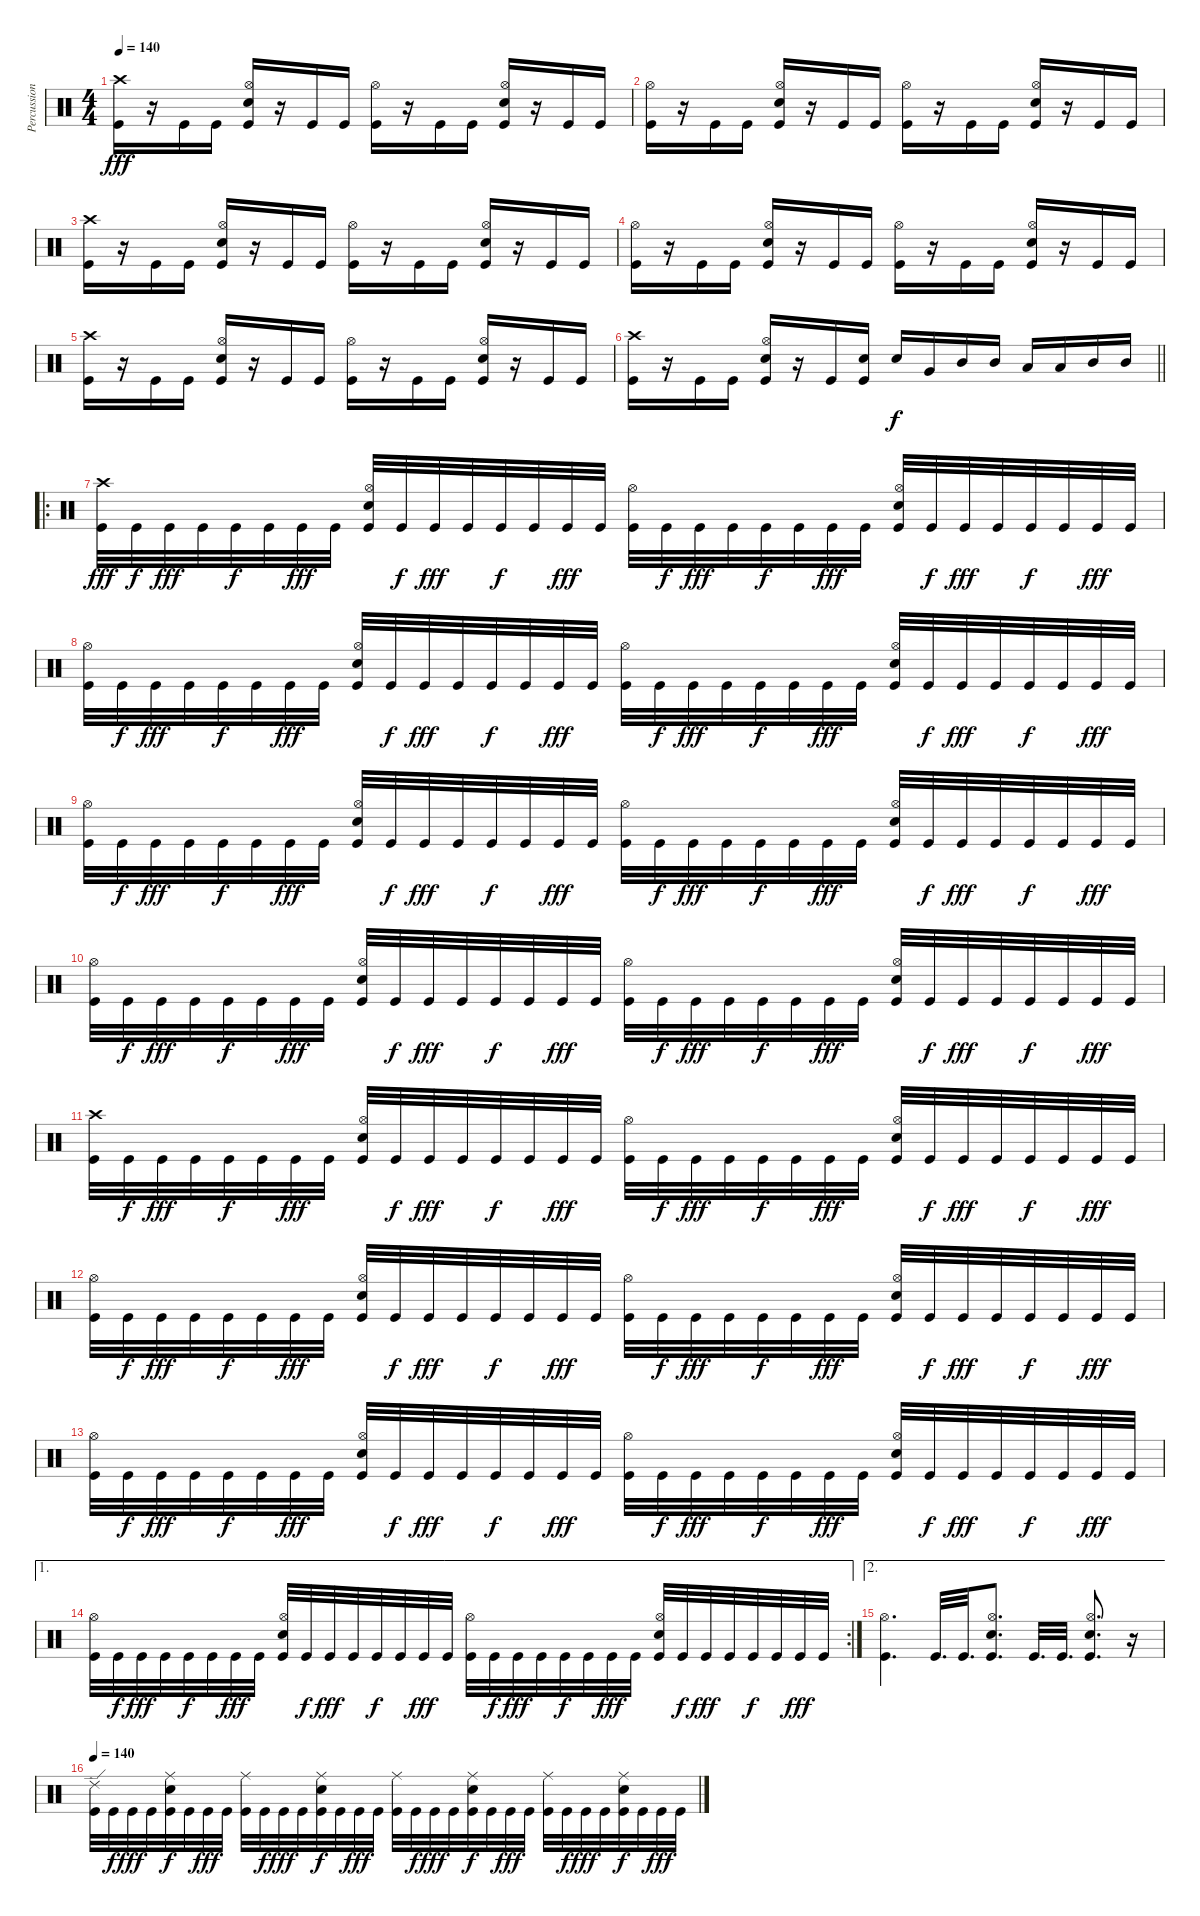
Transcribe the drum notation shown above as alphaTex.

\track ("Percussion" "Percussion") {instrument percussion}
\staff {score}
\articulation defaults
\ts (4 4)
\tempo 140
\clef neutral
\ks c
("Crash high (hit)" "Kick (hit)").16{dy fff} r.16 "Kick (hit)".16 "Kick (hit)".16 ("Hi-Hat (open)" "Electric Snare (hit)" "Kick (hit)").16 r.16 "Kick (hit)".16 "Kick (hit)".16 ("Hi-Hat (open)" "Kick (hit)").16 r.16 "Kick (hit)".16 "Kick (hit)".16 ("Hi-Hat (open)" "Electric Snare (hit)" "Kick (hit)").16 r.16 "Kick (hit)".16 "Kick (hit)".16 |
("Hi-Hat (open)" "Kick (hit)").16 r.16 "Kick (hit)".16 "Kick (hit)".16 ("Hi-Hat (open)" "Electric Snare (hit)" "Kick (hit)").16 r.16 "Kick (hit)".16 "Kick (hit)".16 ("Hi-Hat (open)" "Kick (hit)").16 r.16 "Kick (hit)".16 "Kick (hit)".16 ("Hi-Hat (open)" "Electric Snare (hit)" "Kick (hit)").16 r.16 "Kick (hit)".16 "Kick (hit)".16 |
("Crash high (hit)" "Kick (hit)").16 r.16 "Kick (hit)".16 "Kick (hit)".16 ("Hi-Hat (open)" "Electric Snare (hit)" "Kick (hit)").16 r.16 "Kick (hit)".16 "Kick (hit)".16 ("Hi-Hat (open)" "Kick (hit)").16 r.16 "Kick (hit)".16 "Kick (hit)".16 ("Hi-Hat (open)" "Electric Snare (hit)" "Kick (hit)").16 r.16 "Kick (hit)".16 "Kick (hit)".16 |
("Hi-Hat (open)" "Kick (hit)").16 r.16 "Kick (hit)".16 "Kick (hit)".16 ("Hi-Hat (open)" "Electric Snare (hit)" "Kick (hit)").16 r.16 "Kick (hit)".16 "Kick (hit)".16 ("Hi-Hat (open)" "Kick (hit)").16 r.16 "Kick (hit)".16 "Kick (hit)".16 ("Hi-Hat (open)" "Electric Snare (hit)" "Kick (hit)").16 r.16 "Kick (hit)".16 "Kick (hit)".16 |
("Crash high (hit)" "Kick (hit)").16 r.16 "Kick (hit)".16 "Kick (hit)".16 ("Hi-Hat (open)" "Electric Snare (hit)" "Kick (hit)").16 r.16 "Kick (hit)".16 "Kick (hit)".16 ("Hi-Hat (open)" "Kick (hit)").16 r.16 "Kick (hit)".16 "Kick (hit)".16 ("Hi-Hat (open)" "Electric Snare (hit)" "Kick (hit)").16 r.16 "Kick (hit)".16 "Kick (hit)".16 |
\barLineRight lightlight
("Crash high (hit)" "Kick (hit)").16 r.16 "Kick (hit)".16 "Kick (hit)".16 ("Hi-Hat (open)" "Electric Snare (hit)" "Kick (hit)").16 r.16 "Kick (hit)".16 ("Electric Snare (hit)" "Kick (hit)").16 "Electric Snare (hit)".16{dy f} "Very Low Tom (hit)".16 "Mid Tom (hit)".16 "Mid Tom (hit)".16 "Low Tom (hit)".16 "Low Tom (hit)".16 "Mid Tom (hit)".16 "Mid Tom (hit)".16 |
\ro
("Crash high (hit)" "Kick (hit)").32{dy fff} "Kick (hit)".32{dy f} "Kick (hit)".32{dy fff} "Kick (hit)".32 "Kick (hit)".32{dy f} "Kick (hit)".32 "Kick (hit)".32{dy fff} "Kick (hit)".32 ("Hi-Hat (open)" "Electric Snare (hit)" "Kick (hit)").32 "Kick (hit)".32{dy f} "Kick (hit)".32{dy fff} "Kick (hit)".32 "Kick (hit)".32{dy f} "Kick (hit)".32 "Kick (hit)".32{dy fff} "Kick (hit)".32 ("Hi-Hat (open)" "Kick (hit)").32 "Kick (hit)".32{dy f} "Kick (hit)".32{dy fff} "Kick (hit)".32 "Kick (hit)".32{dy f} "Kick (hit)".32 "Kick (hit)".32{dy fff} "Kick (hit)".32 ("Hi-Hat (open)" "Electric Snare (hit)" "Kick (hit)").32 "Kick (hit)".32{dy f} "Kick (hit)".32{dy fff} "Kick (hit)".32 "Kick (hit)".32{dy f} "Kick (hit)".32 "Kick (hit)".32{dy fff} "Kick (hit)".32 |
("Hi-Hat (open)" "Kick (hit)").32 "Kick (hit)".32{dy f} "Kick (hit)".32{dy fff} "Kick (hit)".32 "Kick (hit)".32{dy f} "Kick (hit)".32 "Kick (hit)".32{dy fff} "Kick (hit)".32 ("Hi-Hat (open)" "Electric Snare (hit)" "Kick (hit)").32 "Kick (hit)".32{dy f} "Kick (hit)".32{dy fff} "Kick (hit)".32 "Kick (hit)".32{dy f} "Kick (hit)".32 "Kick (hit)".32{dy fff} "Kick (hit)".32 ("Hi-Hat (open)" "Kick (hit)").32 "Kick (hit)".32{dy f} "Kick (hit)".32{dy fff} "Kick (hit)".32 "Kick (hit)".32{dy f} "Kick (hit)".32 "Kick (hit)".32{dy fff} "Kick (hit)".32 ("Hi-Hat (open)" "Electric Snare (hit)" "Kick (hit)").32 "Kick (hit)".32{dy f} "Kick (hit)".32{dy fff} "Kick (hit)".32 "Kick (hit)".32{dy f} "Kick (hit)".32 "Kick (hit)".32{dy fff} "Kick (hit)".32 |
("Hi-Hat (open)" "Kick (hit)").32 "Kick (hit)".32{dy f} "Kick (hit)".32{dy fff} "Kick (hit)".32 "Kick (hit)".32{dy f} "Kick (hit)".32 "Kick (hit)".32{dy fff} "Kick (hit)".32 ("Hi-Hat (open)" "Electric Snare (hit)" "Kick (hit)").32 "Kick (hit)".32{dy f} "Kick (hit)".32{dy fff} "Kick (hit)".32 "Kick (hit)".32{dy f} "Kick (hit)".32 "Kick (hit)".32{dy fff} "Kick (hit)".32 ("Hi-Hat (open)" "Kick (hit)").32 "Kick (hit)".32{dy f} "Kick (hit)".32{dy fff} "Kick (hit)".32 "Kick (hit)".32{dy f} "Kick (hit)".32 "Kick (hit)".32{dy fff} "Kick (hit)".32 ("Hi-Hat (open)" "Electric Snare (hit)" "Kick (hit)").32 "Kick (hit)".32{dy f} "Kick (hit)".32{dy fff} "Kick (hit)".32 "Kick (hit)".32{dy f} "Kick (hit)".32 "Kick (hit)".32{dy fff} "Kick (hit)".32 |
("Hi-Hat (open)" "Kick (hit)").32 "Kick (hit)".32{dy f} "Kick (hit)".32{dy fff} "Kick (hit)".32 "Kick (hit)".32{dy f} "Kick (hit)".32 "Kick (hit)".32{dy fff} "Kick (hit)".32 ("Hi-Hat (open)" "Electric Snare (hit)" "Kick (hit)").32 "Kick (hit)".32{dy f} "Kick (hit)".32{dy fff} "Kick (hit)".32 "Kick (hit)".32{dy f} "Kick (hit)".32 "Kick (hit)".32{dy fff} "Kick (hit)".32 ("Hi-Hat (open)" "Kick (hit)").32 "Kick (hit)".32{dy f} "Kick (hit)".32{dy fff} "Kick (hit)".32 "Kick (hit)".32{dy f} "Kick (hit)".32 "Kick (hit)".32{dy fff} "Kick (hit)".32 ("Hi-Hat (open)" "Electric Snare (hit)" "Kick (hit)").32 "Kick (hit)".32{dy f} "Kick (hit)".32{dy fff} "Kick (hit)".32 "Kick (hit)".32{dy f} "Kick (hit)".32 "Kick (hit)".32{dy fff} "Kick (hit)".32 |
("Crash high (hit)" "Kick (hit)").32 "Kick (hit)".32{dy f} "Kick (hit)".32{dy fff} "Kick (hit)".32 "Kick (hit)".32{dy f} "Kick (hit)".32 "Kick (hit)".32{dy fff} "Kick (hit)".32 ("Hi-Hat (open)" "Electric Snare (hit)" "Kick (hit)").32 "Kick (hit)".32{dy f} "Kick (hit)".32{dy fff} "Kick (hit)".32 "Kick (hit)".32{dy f} "Kick (hit)".32 "Kick (hit)".32{dy fff} "Kick (hit)".32 ("Hi-Hat (open)" "Kick (hit)").32 "Kick (hit)".32{dy f} "Kick (hit)".32{dy fff} "Kick (hit)".32 "Kick (hit)".32{dy f} "Kick (hit)".32 "Kick (hit)".32{dy fff} "Kick (hit)".32 ("Hi-Hat (open)" "Electric Snare (hit)" "Kick (hit)").32 "Kick (hit)".32{dy f} "Kick (hit)".32{dy fff} "Kick (hit)".32 "Kick (hit)".32{dy f} "Kick (hit)".32 "Kick (hit)".32{dy fff} "Kick (hit)".32 |
("Hi-Hat (open)" "Kick (hit)").32 "Kick (hit)".32{dy f} "Kick (hit)".32{dy fff} "Kick (hit)".32 "Kick (hit)".32{dy f} "Kick (hit)".32 "Kick (hit)".32{dy fff} "Kick (hit)".32 ("Hi-Hat (open)" "Electric Snare (hit)" "Kick (hit)").32 "Kick (hit)".32{dy f} "Kick (hit)".32{dy fff} "Kick (hit)".32 "Kick (hit)".32{dy f} "Kick (hit)".32 "Kick (hit)".32{dy fff} "Kick (hit)".32 ("Hi-Hat (open)" "Kick (hit)").32 "Kick (hit)".32{dy f} "Kick (hit)".32{dy fff} "Kick (hit)".32 "Kick (hit)".32{dy f} "Kick (hit)".32 "Kick (hit)".32{dy fff} "Kick (hit)".32 ("Hi-Hat (open)" "Electric Snare (hit)" "Kick (hit)").32 "Kick (hit)".32{dy f} "Kick (hit)".32{dy fff} "Kick (hit)".32 "Kick (hit)".32{dy f} "Kick (hit)".32 "Kick (hit)".32{dy fff} "Kick (hit)".32 |
("Hi-Hat (open)" "Kick (hit)").32 "Kick (hit)".32{dy f} "Kick (hit)".32{dy fff} "Kick (hit)".32 "Kick (hit)".32{dy f} "Kick (hit)".32 "Kick (hit)".32{dy fff} "Kick (hit)".32 ("Hi-Hat (open)" "Electric Snare (hit)" "Kick (hit)").32 "Kick (hit)".32{dy f} "Kick (hit)".32{dy fff} "Kick (hit)".32 "Kick (hit)".32{dy f} "Kick (hit)".32 "Kick (hit)".32{dy fff} "Kick (hit)".32 ("Hi-Hat (open)" "Kick (hit)").32 "Kick (hit)".32{dy f} "Kick (hit)".32{dy fff} "Kick (hit)".32 "Kick (hit)".32{dy f} "Kick (hit)".32 "Kick (hit)".32{dy fff} "Kick (hit)".32 ("Hi-Hat (open)" "Electric Snare (hit)" "Kick (hit)").32 "Kick (hit)".32{dy f} "Kick (hit)".32{dy fff} "Kick (hit)".32 "Kick (hit)".32{dy f} "Kick (hit)".32 "Kick (hit)".32{dy fff} "Kick (hit)".32 |
\ae 1
\rc 2
("Hi-Hat (open)" "Kick (hit)").32 "Kick (hit)".32{dy f} "Kick (hit)".32{dy fff} "Kick (hit)".32 "Kick (hit)".32{dy f} "Kick (hit)".32 "Kick (hit)".32{dy fff} "Kick (hit)".32 ("Hi-Hat (open)" "Electric Snare (hit)" "Kick (hit)").32 "Kick (hit)".32{dy f} "Kick (hit)".32{dy fff} "Kick (hit)".32 "Kick (hit)".32{dy f} "Kick (hit)".32 "Kick (hit)".32{dy fff} "Kick (hit)".32 ("Hi-Hat (open)" "Kick (hit)").32 "Kick (hit)".32{dy f} "Kick (hit)".32{dy fff} "Kick (hit)".32 "Kick (hit)".32{dy f} "Kick (hit)".32 "Kick (hit)".32{dy fff} "Kick (hit)".32 ("Hi-Hat (open)" "Electric Snare (hit)" "Kick (hit)").32 "Kick (hit)".32{dy f} "Kick (hit)".32{dy fff} "Kick (hit)".32 "Kick (hit)".32{dy f} "Kick (hit)".32 "Kick (hit)".32{dy fff} "Kick (hit)".32 |
\ae 2
("Hi-Hat (open)" "Kick (hit)").4{d} "Kick (hit)".32{d} "Kick (hit)".32{d} ("Hi-Hat (open)" "Electric Snare (hit)" "Kick (hit)").8{d} "Kick (hit)".32{d} "Kick (hit)".32{d} ("Hi-Hat (open)" "Electric Snare (hit)" "Kick (hit)").8{d} r.16 |
\tempo 140
("Ride (edge) 2" "Kick (hit)").32 "Kick (hit)".32{dy f} "Kick (hit)".32{dy fff} "Kick (hit)".32 ("Electric Snare (hit)" "Ride (middle)" "Kick (hit)").32{dy f} "Kick (hit)".32 "Kick (hit)".32{dy fff} "Kick (hit)".32 ("Ride (middle)" "Kick (hit)").32 "Kick (hit)".32{dy f} "Kick (hit)".32{dy fff} "Kick (hit)".32 ("Electric Snare (hit)" "Ride (middle)" "Kick (hit)").32{dy f} "Kick (hit)".32 "Kick (hit)".32{dy fff} "Kick (hit)".32 ("Ride (middle)" "Kick (hit)").32 "Kick (hit)".32{dy f} "Kick (hit)".32{dy fff} "Kick (hit)".32 ("Electric Snare (hit)" "Ride (middle)" "Kick (hit)").32{dy f} "Kick (hit)".32 "Kick (hit)".32{dy fff} "Kick (hit)".32 ("Ride (middle)" "Kick (hit)").32 "Kick (hit)".32{dy f} "Kick (hit)".32{dy fff} "Kick (hit)".32 ("Electric Snare (hit)" "Ride (middle)" "Kick (hit)").32{dy f} "Kick (hit)".32 "Kick (hit)".32{dy fff} "Kick (hit)".32
